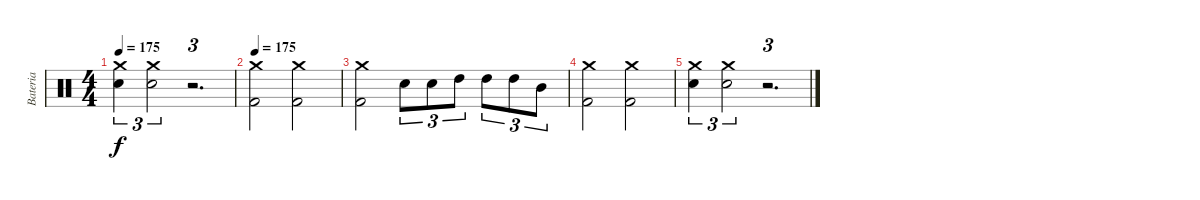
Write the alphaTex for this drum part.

\track ("Bateria" "Bateria") {instrument percussion}
\staff {score}
\articulation defaults
\ts (4 4)
\tempo 175
\clef neutral
\ks c
("Crash medium (hit)" "Snare (hit) 2").4{tu (3 2) dy f} ("Crash medium (hit)" "Snare (hit) 2").2{tu (3 2)} r.2{d tu (3 2)} |
\tempo 175
("Kick (hit) 2" "Crash medium (hit)").2 ("Kick (hit) 2" "Crash medium (hit)").2 |
("Kick (hit) 2" "Crash medium (hit)").2 "Snare (hit) 2".8{tu (3 2)} "Snare (hit) 2".8{tu (3 2)} "High Tom (hit)".8{tu (3 2)} "High Tom (hit)".8{tu (3 2)} "High Tom (hit)".8{tu (3 2)} "Mid Tom (hit)".8{tu (3 2)} |
("Kick (hit) 2" "Crash medium (hit)").2 ("Kick (hit) 2" "Crash medium (hit)").2 |
("Crash medium (hit)" "Snare (hit) 2").4{tu (3 2)} ("Crash medium (hit)" "Snare (hit) 2").2{tu (3 2)} r.2{d tu (3 2)}
